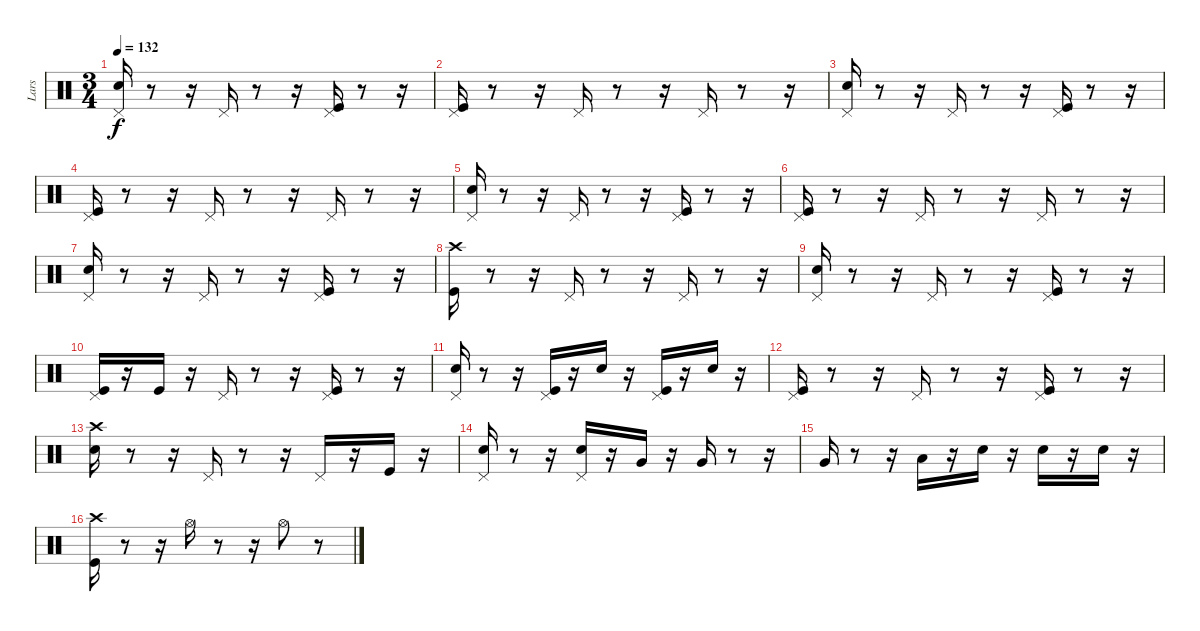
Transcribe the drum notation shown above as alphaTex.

\track ("Lars" "Lars") {instrument percussion}
\staff {score}
\articulation defaults
\ts (3 4)
\tempo 132
\clef neutral
\ks c
("Pedal Hi-Hat (hit)" "Snare (hit) 2").16{dy f} r.8 r.16 "Pedal Hi-Hat (hit)".16 r.8 r.16 ("Pedal Hi-Hat (hit)" "Kick (hit)").16 r.8 r.16 |
("Pedal Hi-Hat (hit)" "Kick (hit)").16 r.8 r.16 "Pedal Hi-Hat (hit)".16 r.8 r.16 "Pedal Hi-Hat (hit)".16 r.8 r.16 |
("Pedal Hi-Hat (hit)" "Snare (hit) 2").16 r.8 r.16 "Pedal Hi-Hat (hit)".16 r.8 r.16 ("Pedal Hi-Hat (hit)" "Kick (hit)").16 r.8 r.16 |
("Pedal Hi-Hat (hit)" "Kick (hit)").16 r.8 r.16 "Pedal Hi-Hat (hit)".16 r.8 r.16 "Pedal Hi-Hat (hit)".16 r.8 r.16 |
("Pedal Hi-Hat (hit)" "Snare (hit) 2").16 r.8 r.16 "Pedal Hi-Hat (hit)".16 r.8 r.16 ("Pedal Hi-Hat (hit)" "Kick (hit)").16 r.8 r.16 |
("Pedal Hi-Hat (hit)" "Kick (hit)").16 r.8 r.16 "Pedal Hi-Hat (hit)".16 r.8 r.16 "Pedal Hi-Hat (hit)".16 r.8 r.16 |
("Pedal Hi-Hat (hit)" "Snare (hit) 2").16 r.8 r.16 "Pedal Hi-Hat (hit)".16 r.8 r.16 ("Pedal Hi-Hat (hit)" "Kick (hit)").16 r.8 r.16 |
("Kick (hit)" "Crash high (hit)").16 r.8 r.16 "Pedal Hi-Hat (hit)".16 r.8 r.16 "Pedal Hi-Hat (hit)".16 r.8 r.16 |
("Pedal Hi-Hat (hit)" "Snare (hit) 2").16 r.8 r.16 "Pedal Hi-Hat (hit)".16 r.8 r.16 ("Pedal Hi-Hat (hit)" "Kick (hit)").16 r.8 r.16 |
("Pedal Hi-Hat (hit)" "Kick (hit)").16 r.16 "Kick (hit)".16 r.16 "Pedal Hi-Hat (hit)".16 r.8 r.16 ("Pedal Hi-Hat (hit)" "Kick (hit)").16 r.8 r.16 |
("Pedal Hi-Hat (hit)" "Snare (hit) 2").16 r.8 r.16 ("Pedal Hi-Hat (hit)" "Kick (hit)").16 r.16 "Snare (hit) 2".16 r.16 ("Pedal Hi-Hat (hit)" "Kick (hit)").16 r.16 "Snare (hit) 2".16 r.16 |
("Kick (hit)" "Pedal Hi-Hat (hit)").16 r.8 r.16 "Pedal Hi-Hat (hit)".16 r.8 r.16 ("Pedal Hi-Hat (hit)" "Kick (hit)").16 r.8 r.16 |
("Snare (hit) 2" "Crash high (hit)").16 r.8 r.16 "Pedal Hi-Hat (hit)".16 r.8 r.16 "Pedal Hi-Hat (hit)".16 r.16 "Kick (hit)".16 r.16 |
("Pedal Hi-Hat (hit)" "Snare (hit) 2").16 r.8 r.16 ("Pedal Hi-Hat (hit)" "Snare (hit) 2").16 r.16 "Very Low Tom (hit)".16 r.16 "Very Low Tom (hit)".16 r.8 r.16 |
"Very Low Tom (hit)".16 r.8 r.16 "Low Floor Tom (hit)".16 r.16 "Snare (hit) 2".16 r.16 "Snare (hit) 2".16 r.16 "Snare (hit) 2".16 r.16 |
("Kick (hit)" "Crash high (hit)").16 r.8 r.16 "Hi-Hat (open)".16 r.8 r.16 "Hi-Hat (open)".8 r.8
